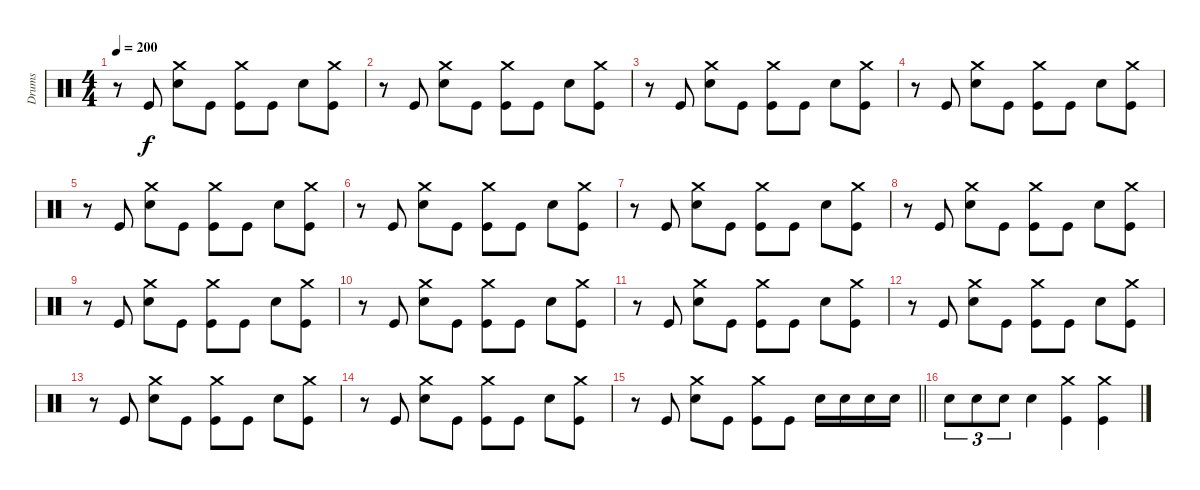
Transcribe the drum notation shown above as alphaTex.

\track ("Drums" "Drums") {instrument percussion}
\staff {score}
\articulation defaults
\ts (4 4)
\tempo 200
\clef neutral
\ks c
r.8{dy f} "Kick (hit)".8 ("Crash medium (hit)" "Snare (hit) 2").8 "Kick (hit)".8 ("Crash medium (hit)" "Kick (hit)").8 "Kick (hit)".8 "Snare (hit) 2".8 ("Crash medium (hit)" "Kick (hit)").8 |
r.8 "Kick (hit)".8 ("Crash medium (hit)" "Snare (hit) 2").8 "Kick (hit)".8 ("Crash medium (hit)" "Kick (hit)").8 "Kick (hit)".8 "Snare (hit) 2".8 ("Crash medium (hit)" "Kick (hit)").8 |
r.8 "Kick (hit)".8 ("Crash medium (hit)" "Snare (hit) 2").8 "Kick (hit)".8 ("Crash medium (hit)" "Kick (hit)").8 "Kick (hit)".8 "Snare (hit) 2".8 ("Crash medium (hit)" "Kick (hit)").8 |
r.8 "Kick (hit)".8 ("Crash medium (hit)" "Snare (hit) 2").8 "Kick (hit)".8 ("Crash medium (hit)" "Kick (hit)").8 "Kick (hit)".8 "Snare (hit) 2".8 ("Crash medium (hit)" "Kick (hit)").8 |
r.8 "Kick (hit)".8 ("Crash medium (hit)" "Snare (hit) 2").8 "Kick (hit)".8 ("Crash medium (hit)" "Kick (hit)").8 "Kick (hit)".8 "Snare (hit) 2".8 ("Crash medium (hit)" "Kick (hit)").8 |
r.8 "Kick (hit)".8 ("Crash medium (hit)" "Snare (hit) 2").8 "Kick (hit)".8 ("Crash medium (hit)" "Kick (hit)").8 "Kick (hit)".8 "Snare (hit) 2".8 ("Crash medium (hit)" "Kick (hit)").8 |
r.8 "Kick (hit)".8 ("Crash medium (hit)" "Snare (hit) 2").8 "Kick (hit)".8 ("Crash medium (hit)" "Kick (hit)").8 "Kick (hit)".8 "Snare (hit) 2".8 ("Crash medium (hit)" "Kick (hit)").8 |
r.8 "Kick (hit)".8 ("Crash medium (hit)" "Snare (hit) 2").8 "Kick (hit)".8 ("Crash medium (hit)" "Kick (hit)").8 "Kick (hit)".8 "Snare (hit) 2".8 ("Crash medium (hit)" "Kick (hit)").8 |
r.8 "Kick (hit)".8 ("Crash medium (hit)" "Snare (hit) 2").8 "Kick (hit)".8 ("Crash medium (hit)" "Kick (hit)").8 "Kick (hit)".8 "Snare (hit) 2".8 ("Crash medium (hit)" "Kick (hit)").8 |
r.8 "Kick (hit)".8 ("Crash medium (hit)" "Snare (hit) 2").8 "Kick (hit)".8 ("Crash medium (hit)" "Kick (hit)").8 "Kick (hit)".8 "Snare (hit) 2".8 ("Crash medium (hit)" "Kick (hit)").8 |
r.8 "Kick (hit)".8 ("Crash medium (hit)" "Snare (hit) 2").8 "Kick (hit)".8 ("Crash medium (hit)" "Kick (hit)").8 "Kick (hit)".8 "Snare (hit) 2".8 ("Crash medium (hit)" "Kick (hit)").8 |
r.8 "Kick (hit)".8 ("Crash medium (hit)" "Snare (hit) 2").8 "Kick (hit)".8 ("Crash medium (hit)" "Kick (hit)").8 "Kick (hit)".8 "Snare (hit) 2".8 ("Crash medium (hit)" "Kick (hit)").8 |
r.8 "Kick (hit)".8 ("Crash medium (hit)" "Snare (hit) 2").8 "Kick (hit)".8 ("Crash medium (hit)" "Kick (hit)").8 "Kick (hit)".8 "Snare (hit) 2".8 ("Crash medium (hit)" "Kick (hit)").8 |
r.8 "Kick (hit)".8 ("Crash medium (hit)" "Snare (hit) 2").8 "Kick (hit)".8 ("Crash medium (hit)" "Kick (hit)").8 "Kick (hit)".8 "Snare (hit) 2".8 ("Crash medium (hit)" "Kick (hit)").8 |
\barLineRight lightlight
r.8 "Kick (hit)".8 ("Crash medium (hit)" "Snare (hit) 2").8 "Kick (hit)".8 ("Crash medium (hit)" "Kick (hit)").8 "Kick (hit)".8 "Snare (hit) 2".16 "Snare (hit) 2".16 "Snare (hit) 2".16 "Snare (hit) 2".16 |
"Snare (hit) 2".8{tu (3 2)} "Snare (hit) 2".8{tu (3 2)} "Snare (hit) 2".8{tu (3 2)} "Snare (hit) 2".4 ("Crash medium (hit)" "Kick (hit)").4 ("Crash medium (hit)" "Kick (hit)").4
